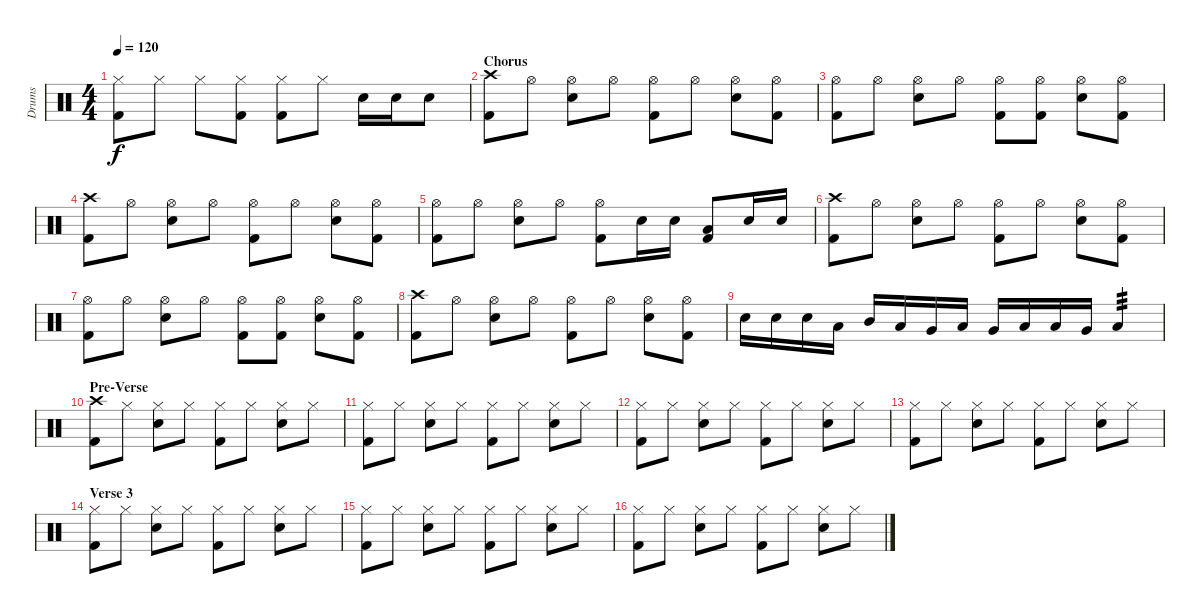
\track ("Drums" "Drums") {instrument percussion}
\staff {score}
\articulation defaults
\ts (4 4)
\tempo 120
\clef neutral
\ks c
("Kick (hit) 2" "Hi-Hat (closed)").8{dy f} "Hi-Hat (closed)".8 "Hi-Hat (closed)".8 ("Kick (hit) 2" "Hi-Hat (closed)").8 ("Kick (hit) 2" "Hi-Hat (closed)").8 "Hi-Hat (closed)".8 "Snare (hit) 2".16 "Snare (hit) 2".16 "Snare (hit) 2".8 |
\section ("" "Chorus")
("Crash high (hit)" "Kick (hit) 2").8 "Hi-Hat (open)".8 ("Hi-Hat (open)" "Snare (hit) 2").8 "Hi-Hat (open)".8 ("Hi-Hat (open)" "Kick (hit) 2").8 "Hi-Hat (open)".8 ("Hi-Hat (open)" "Snare (hit) 2").8 ("Hi-Hat (open)" "Kick (hit) 2").8 |
("Hi-Hat (open)" "Kick (hit) 2").8 "Hi-Hat (open)".8 ("Hi-Hat (open)" "Snare (hit) 2").8 "Hi-Hat (open)".8 ("Hi-Hat (open)" "Kick (hit) 2").8 ("Hi-Hat (open)" "Kick (hit) 2").8 ("Hi-Hat (open)" "Snare (hit) 2").8 ("Hi-Hat (open)" "Kick (hit) 2").8 |
("Crash high (hit)" "Kick (hit) 2").8 "Hi-Hat (open)".8 ("Hi-Hat (open)" "Snare (hit) 2").8 "Hi-Hat (open)".8 ("Hi-Hat (open)" "Kick (hit) 2").8 "Hi-Hat (open)".8 ("Hi-Hat (open)" "Snare (hit) 2").8 ("Hi-Hat (open)" "Kick (hit) 2").8 |
("Hi-Hat (open)" "Kick (hit) 2").8 "Hi-Hat (open)".8 ("Hi-Hat (open)" "Snare (hit) 2").8 "Hi-Hat (open)".8 ("Hi-Hat (open)" "Kick (hit) 2").8 "Snare (hit) 2".16 "Snare (hit) 2".16 ("Low Tom (hit)" "Kick (hit) 2").8 "Snare (hit) 2".16 "Snare (hit) 2".16 |
("Crash high (hit)" "Kick (hit) 2").8 "Hi-Hat (open)".8 ("Hi-Hat (open)" "Snare (hit) 2").8 "Hi-Hat (open)".8 ("Hi-Hat (open)" "Kick (hit) 2").8 "Hi-Hat (open)".8 ("Hi-Hat (open)" "Snare (hit) 2").8 ("Hi-Hat (open)" "Kick (hit) 2").8 |
("Hi-Hat (open)" "Kick (hit) 2").8 "Hi-Hat (open)".8 ("Hi-Hat (open)" "Snare (hit) 2").8 "Hi-Hat (open)".8 ("Hi-Hat (open)" "Kick (hit) 2").8 ("Hi-Hat (open)" "Kick (hit) 2").8 ("Hi-Hat (open)" "Snare (hit) 2").8 ("Hi-Hat (open)" "Kick (hit) 2").8 |
("Crash high (hit)" "Kick (hit) 2").8 "Hi-Hat (open)".8 ("Hi-Hat (open)" "Snare (hit) 2").8 "Hi-Hat (open)".8 ("Hi-Hat (open)" "Kick (hit) 2").8 "Hi-Hat (open)".8 ("Hi-Hat (open)" "Snare (hit) 2").8 ("Hi-Hat (open)" "Kick (hit) 2").8 |
"Snare (hit) 2".16 "Snare (hit) 2".16 "Snare (hit) 2".16 "Low Tom (hit)".16 "Mid Tom (hit)".16 "Low Tom (hit)".16 "Very Low Tom (hit)".16 "Low Floor Tom (hit)".16 "Very Low Tom (hit)".16 "Low Tom (hit)".16 "Low Floor Tom (hit)".16 "Very Low Tom (hit)".16 "Low Floor Tom (hit)".4{tp 3} |
\section ("" "Pre-Verse")
("Crash high (hit)" "Kick (hit) 2").8 "Hi-Hat (closed)".8 ("Hi-Hat (closed)" "Snare (hit) 2").8 "Hi-Hat (closed)".8 ("Hi-Hat (closed)" "Kick (hit) 2").8 "Hi-Hat (closed)".8 ("Hi-Hat (closed)" "Snare (hit) 2").8 "Hi-Hat (closed)".8 |
("Hi-Hat (closed)" "Kick (hit) 2").8 "Hi-Hat (closed)".8 ("Hi-Hat (closed)" "Snare (hit) 2").8 "Hi-Hat (closed)".8 ("Hi-Hat (closed)" "Kick (hit) 2").8 "Hi-Hat (closed)".8 ("Hi-Hat (closed)" "Snare (hit) 2").8 "Hi-Hat (closed)".8 |
("Hi-Hat (closed)" "Kick (hit) 2").8 "Hi-Hat (closed)".8 ("Hi-Hat (closed)" "Snare (hit) 2").8 "Hi-Hat (closed)".8 ("Hi-Hat (closed)" "Kick (hit) 2").8 "Hi-Hat (closed)".8 ("Hi-Hat (closed)" "Snare (hit) 2").8 "Hi-Hat (closed)".8 |
("Hi-Hat (closed)" "Kick (hit) 2").8 "Hi-Hat (closed)".8 ("Hi-Hat (closed)" "Snare (hit) 2").8 "Hi-Hat (closed)".8 ("Hi-Hat (closed)" "Kick (hit) 2").8 "Hi-Hat (closed)".8 ("Hi-Hat (closed)" "Snare (hit) 2").8 "Hi-Hat (closed)".8 |
\section ("" "Verse 3")
("Hi-Hat (closed)" "Kick (hit) 2").8 "Hi-Hat (closed)".8 ("Hi-Hat (closed)" "Snare (hit) 2").8 "Hi-Hat (closed)".8 ("Hi-Hat (closed)" "Kick (hit) 2").8 "Hi-Hat (closed)".8 ("Hi-Hat (closed)" "Snare (hit) 2").8 "Hi-Hat (closed)".8 |
("Hi-Hat (closed)" "Kick (hit) 2").8 "Hi-Hat (closed)".8 ("Hi-Hat (closed)" "Snare (hit) 2").8 "Hi-Hat (closed)".8 ("Hi-Hat (closed)" "Kick (hit) 2").8 "Hi-Hat (closed)".8 ("Hi-Hat (closed)" "Snare (hit) 2").8 "Hi-Hat (closed)".8 |
("Hi-Hat (closed)" "Kick (hit) 2").8 "Hi-Hat (closed)".8 ("Hi-Hat (closed)" "Snare (hit) 2").8 "Hi-Hat (closed)".8 ("Hi-Hat (closed)" "Kick (hit) 2").8 "Hi-Hat (closed)".8 ("Hi-Hat (closed)" "Snare (hit) 2").8 "Hi-Hat (closed)".8
